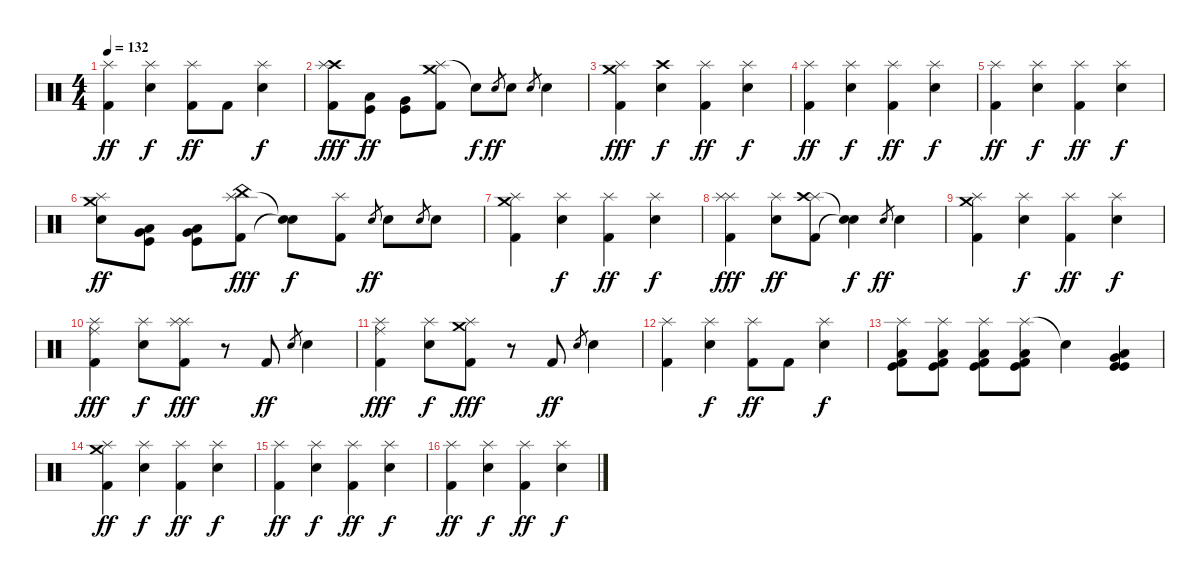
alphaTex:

\track "" {instrument percussion}
\staff {score}
\articulation defaults
\ts (4 4)
\tempo 132
\clef neutral
\ks c
("Splash (hit)" "Kick (hit) 2").4{dy ff} ("Splash (hit)" "Electric Snare (hit)").4{dy f} ("Splash (hit)" "Kick (hit) 2").8{dy ff} "Kick (hit) 2".8 ("Splash (hit)" "Electric Snare (hit)").4{dy f} |
("Crash high (hit)" "Kick (hit) 2" "Splash (hit)").8{dy fff} ("Low Tom (hit)" "Kick (hit)").8{dy ff} ("Very Low Tom (hit)" "Kick (hit)").8 ("Splash (hit)" "Kick (hit) 2" "Crash medium (hit)").8 "Snare (hit)"{t}.8{dy f} "Electric Snare (hit)".8{gr dy ff} "Electric Snare (hit)".8 "Electric Snare (hit)".8{gr} "Electric Snare (hit)".4 |
("Splash (hit)" "Kick (hit) 2" "Crash medium (hit)").4{dy fff} ("Crash high (hit)" "Electric Snare (hit)").4{dy f} ("Splash (hit)" "Kick (hit) 2").4{dy ff} ("Splash (hit)" "Electric Snare (hit)").4{dy f} |
("Splash (hit)" "Kick (hit) 2").4{dy ff} ("Splash (hit)" "Electric Snare (hit)").4{dy f} ("Splash (hit)" "Kick (hit) 2").4{dy ff} ("Splash (hit)" "Electric Snare (hit)").4{dy f} |
("Splash (hit)" "Kick (hit) 2").4{dy ff} ("Splash (hit)" "Electric Snare (hit)").4{dy f} ("Splash (hit)" "Kick (hit) 2").4{dy ff} ("Splash (hit)" "Electric Snare (hit)").4{dy f} |
("Splash (hit)" "Electric Snare (hit)" "Crash medium (hit)").8{dy ff} ("Low Tom (hit)" "Very Low Tom (hit)" "Kick (hit)").8 ("Very Low Tom (hit)" "Low Floor Tom (hit)" "Kick (hit)").8 ("Splash (hit)" "Kick (hit) 2" "China (hit)").8{dy fff} ("Snare (hit)"{t} "Snare (hit)"{t}).8{dy f} ("Splash (hit)" "Kick (hit) 2").8 "Electric Snare (hit)".8{gr dy ff} "Electric Snare (hit)".8 "Electric Snare (hit)".8{gr} "Electric Snare (hit)".8 |
("Splash (hit)" "Kick (hit) 2" "Crash medium (hit)").4 ("Splash (hit)" "Electric Snare (hit)").4{dy f} ("Splash (hit)" "Kick (hit) 2").4{dy ff} ("Splash (hit)" "Electric Snare (hit)").4{dy f} |
("Splash (hit)" "Kick (hit) 2" "Splash (hit)").4{dy fff} ("Splash (hit)" "Electric Snare (hit)").8{dy ff} ("Splash (hit)" "Kick (hit) 2" "Crash high (hit)").8 ("Snare (hit)"{t} "Snare (hit)"{t}).4{dy f} "Electric Snare (hit)".8{gr dy ff} "Electric Snare (hit)".4 |
("Splash (hit)" "Kick (hit) 2" "Crash medium (hit)").4 ("Splash (hit)" "Electric Snare (hit)").4{dy f} ("Splash (hit)" "Kick (hit) 2").4{dy ff} ("Splash (hit)" "Electric Snare (hit)").4{dy f} |
("Splash (hit)" "Kick (hit) 2" "Ride (middle)").4{dy fff} ("Splash (hit)" "Electric Snare (hit)").8{dy f} ("Splash (hit)" "Kick (hit) 2" "Splash (hit)").8{dy fff} r.8 "Kick (hit) 2".8{dy ff} "Electric Snare (hit)".8{gr} "Electric Snare (hit)".4 |
("Splash (hit)" "Kick (hit) 2" "Ride (middle)").4{dy fff} ("Splash (hit)" "Electric Snare (hit)").8{dy f} ("Splash (hit)" "Kick (hit) 2" "Crash medium (hit)").8{dy fff} r.8 "Kick (hit) 2".8{dy ff} "Electric Snare (hit)".8{gr} "Electric Snare (hit)".4 |
("Splash (hit)" "Kick (hit) 2").4 ("Splash (hit)" "Electric Snare (hit)").4{dy f} ("Splash (hit)" "Kick (hit) 2").8{dy ff} "Kick (hit) 2".8 ("Splash (hit)" "Electric Snare (hit)").4{dy f} |
("Splash (hit)" "Low Tom (hit)" "Kick (hit) 2" "Kick (hit)").8 ("Splash (hit)" "Low Tom (hit)" "Kick (hit) 2" "Kick (hit)").8 ("Splash (hit)" "Low Tom (hit)" "Kick (hit) 2" "Kick (hit)").8 ("Splash (hit)" "Low Tom (hit)" "Kick (hit) 2" "Kick (hit)").8 "Snare (hit)"{t}.4 ("Low Tom (hit)" "Very Low Tom (hit)" "Kick (hit)" "Kick (hit)").4 |
("Splash (hit)" "Kick (hit) 2" "Crash medium (hit)").4{dy ff} ("Splash (hit)" "Electric Snare (hit)").4{dy f} ("Splash (hit)" "Kick (hit) 2").4{dy ff} ("Splash (hit)" "Electric Snare (hit)").4{dy f} |
("Splash (hit)" "Kick (hit) 2").4{dy ff} ("Splash (hit)" "Electric Snare (hit)").4{dy f} ("Splash (hit)" "Kick (hit) 2").4{dy ff} ("Splash (hit)" "Electric Snare (hit)").4{dy f} |
("Splash (hit)" "Kick (hit) 2").4{dy ff} ("Splash (hit)" "Electric Snare (hit)").4{dy f} ("Splash (hit)" "Kick (hit) 2").4{dy ff} ("Splash (hit)" "Electric Snare (hit)").4{dy f}
